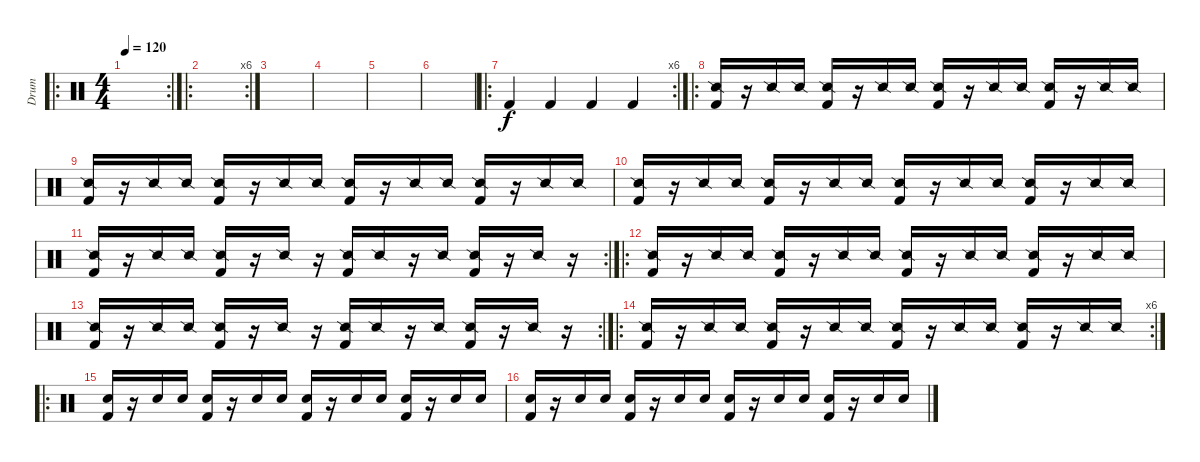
\track ("Drum" "Drum") {instrument percussion}
\staff {score}
\articulation defaults
\ro
\rc 2
\ts (4 4)
\tempo 120
\clef neutral
\ks c
|
\ro
\rc 6
|
|
|
|
|
\ro
\rc 6 "Kick (hit) 2".4 "Kick (hit) 2".4 "Kick (hit) 2".4 "Kick (hit) 2".4
|
\ro
("Snare (side stick) 2" "Kick (hit) 2").16 r.16 "Snare (side stick) 2".16 "Snare (side stick) 2".16 ("Snare (side stick) 2" "Kick (hit) 2").16 r.16 "Snare (side stick) 2".16 "Snare (side stick) 2".16 ("Snare (side stick) 2" "Kick (hit) 2").16 r.16 "Snare (side stick) 2".16 "Snare (side stick) 2".16 ("Snare (side stick) 2" "Kick (hit) 2").16 r.16 "Snare (side stick) 2".16 "Snare (side stick) 2".16 |
("Snare (side stick) 2" "Kick (hit) 2").16 r.16 "Snare (side stick) 2".16 "Snare (side stick) 2".16 ("Snare (side stick) 2" "Kick (hit) 2").16 r.16 "Snare (side stick) 2".16 "Snare (side stick) 2".16 ("Snare (side stick) 2" "Kick (hit) 2").16 r.16 "Snare (side stick) 2".16 "Snare (side stick) 2".16 ("Snare (side stick) 2" "Kick (hit) 2").16 r.16 "Snare (side stick) 2".16 "Snare (side stick) 2".16 |
("Snare (side stick) 2" "Kick (hit) 2").16 r.16 "Snare (side stick) 2".16 "Snare (side stick) 2".16 ("Snare (side stick) 2" "Kick (hit) 2").16 r.16 "Snare (side stick) 2".16 "Snare (side stick) 2".16 ("Snare (side stick) 2" "Kick (hit) 2").16 r.16 "Snare (side stick) 2".16 "Snare (side stick) 2".16 ("Snare (side stick) 2" "Kick (hit) 2").16 r.16 "Snare (side stick) 2".16 "Snare (side stick) 2".16 |
\rc 2
("Snare (side stick) 2" "Kick (hit) 2").16 r.16 "Snare (side stick) 2".16 "Snare (side stick) 2".16 ("Snare (side stick) 2" "Kick (hit) 2").16 r.16 "Snare (side stick) 2".16 r.16 ("Snare (side stick) 2" "Kick (hit) 2").16 "Snare (side stick) 2".16 r.16 "Snare (side stick) 2".16 ("Snare (side stick) 2" "Kick (hit) 2").16 r.16 "Snare (side stick) 2".16 r.16 |
\ro
("Snare (side stick) 2" "Kick (hit) 2").16 r.16 "Snare (side stick) 2".16 "Snare (side stick) 2".16 ("Snare (side stick) 2" "Kick (hit) 2").16 r.16 "Snare (side stick) 2".16 "Snare (side stick) 2".16 ("Snare (side stick) 2" "Kick (hit) 2").16 r.16 "Snare (side stick) 2".16 "Snare (side stick) 2".16 ("Snare (side stick) 2" "Kick (hit) 2").16 r.16 "Snare (side stick) 2".16 "Snare (side stick) 2".16 |
\rc 2
("Snare (side stick) 2" "Kick (hit) 2").16 r.16 "Snare (side stick) 2".16 "Snare (side stick) 2".16 ("Snare (side stick) 2" "Kick (hit) 2").16 r.16 "Snare (side stick) 2".16 r.16 ("Snare (side stick) 2" "Kick (hit) 2").16 "Snare (side stick) 2".16 r.16 "Snare (side stick) 2".16 ("Snare (side stick) 2" "Kick (hit) 2").16 r.16 "Snare (side stick) 2".16 r.16 |
\ro
\rc 6
("Snare (side stick) 2" "Kick (hit) 2").16 r.16 "Snare (side stick) 2".16 "Snare (side stick) 2".16 ("Snare (side stick) 2" "Kick (hit) 2").16 r.16 "Snare (side stick) 2".16 "Snare (side stick) 2".16 ("Snare (side stick) 2" "Kick (hit) 2").16 r.16 "Snare (side stick) 2".16 "Snare (side stick) 2".16 ("Snare (side stick) 2" "Kick (hit) 2").16 r.16 "Snare (side stick) 2".16 "Snare (side stick) 2".16 |
\ro
("Electric Snare (hit)" "Kick (hit) 2").16 r.16 "Electric Snare (hit)".16 "Electric Snare (hit)".16 ("Electric Snare (hit)" "Kick (hit) 2").16 r.16 "Electric Snare (hit)".16 "Electric Snare (hit)".16 ("Electric Snare (hit)" "Kick (hit) 2").16 r.16 "Electric Snare (hit)".16 "Electric Snare (hit)".16 ("Electric Snare (hit)" "Kick (hit) 2").16 r.16 "Electric Snare (hit)".16 "Electric Snare (hit)".16 |
("Electric Snare (hit)" "Kick (hit) 2").16 r.16 "Electric Snare (hit)".16 "Electric Snare (hit)".16 ("Electric Snare (hit)" "Kick (hit) 2").16 r.16 "Electric Snare (hit)".16 "Electric Snare (hit)".16 ("Electric Snare (hit)" "Kick (hit) 2").16 r.16 "Electric Snare (hit)".16 "Electric Snare (hit)".16 ("Electric Snare (hit)" "Kick (hit) 2").16 r.16 "Electric Snare (hit)".16 "Electric Snare (hit)".16
